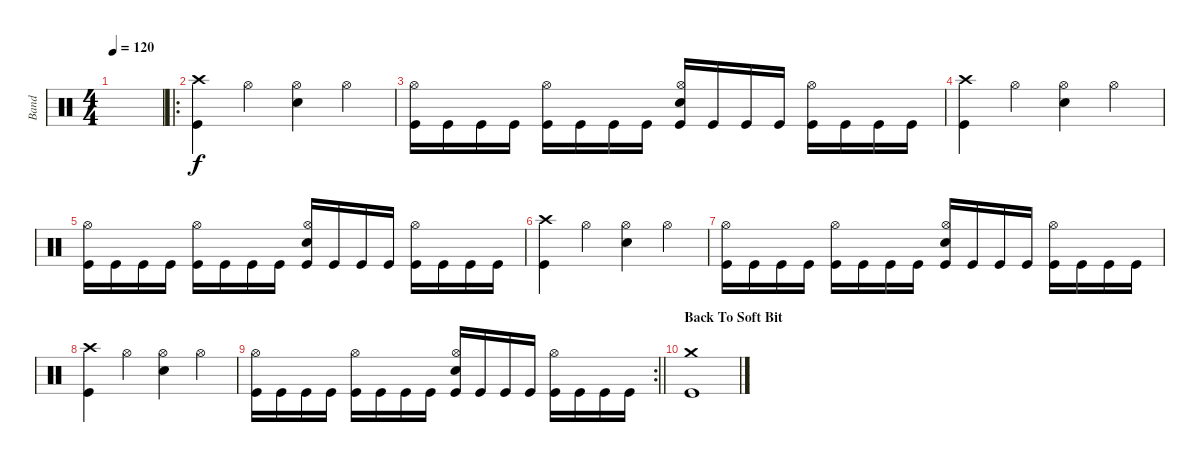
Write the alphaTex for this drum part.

\track ("Band" "Band") {instrument percussion}
\staff {score}
\articulation defaults
\ts (4 4)
\tempo 120
\clef neutral
\ks c
|
\ro
("Crash high (hit)" "Kick (hit)").4 "Hi-Hat (open)".4 ("Hi-Hat (open)" "Electric Snare (hit)").4 "Hi-Hat (open)".4 |
("Hi-Hat (open)" "Kick (hit)").16 "Kick (hit)".16 "Kick (hit)".16 "Kick (hit)".16 ("Hi-Hat (open)" "Kick (hit)").16 "Kick (hit)".16 "Kick (hit)".16 "Kick (hit)".16 ("Hi-Hat (open)" "Electric Snare (hit)" "Kick (hit)").16 "Kick (hit)".16 "Kick (hit)".16 "Kick (hit)".16 ("Hi-Hat (open)" "Kick (hit)").16 "Kick (hit)".16 "Kick (hit)".16 "Kick (hit)".16 |
("Crash high (hit)" "Kick (hit)").4 "Hi-Hat (open)".4 ("Hi-Hat (open)" "Electric Snare (hit)").4 "Hi-Hat (open)".4 |
("Hi-Hat (open)" "Kick (hit)").16 "Kick (hit)".16 "Kick (hit)".16 "Kick (hit)".16 ("Hi-Hat (open)" "Kick (hit)").16 "Kick (hit)".16 "Kick (hit)".16 "Kick (hit)".16 ("Hi-Hat (open)" "Electric Snare (hit)" "Kick (hit)").16 "Kick (hit)".16 "Kick (hit)".16 "Kick (hit)".16 ("Hi-Hat (open)" "Kick (hit)").16 "Kick (hit)".16 "Kick (hit)".16 "Kick (hit)".16 |
("Crash high (hit)" "Kick (hit)").4 "Hi-Hat (open)".4 ("Hi-Hat (open)" "Electric Snare (hit)").4 "Hi-Hat (open)".4 |
("Hi-Hat (open)" "Kick (hit)").16 "Kick (hit)".16 "Kick (hit)".16 "Kick (hit)".16 ("Hi-Hat (open)" "Kick (hit)").16 "Kick (hit)".16 "Kick (hit)".16 "Kick (hit)".16 ("Hi-Hat (open)" "Electric Snare (hit)" "Kick (hit)").16 "Kick (hit)".16 "Kick (hit)".16 "Kick (hit)".16 ("Hi-Hat (open)" "Kick (hit)").16 "Kick (hit)".16 "Kick (hit)".16 "Kick (hit)".16 |
("Crash high (hit)" "Kick (hit)").4 "Hi-Hat (open)".4 ("Hi-Hat (open)" "Electric Snare (hit)").4 "Hi-Hat (open)".4 |
\rc 2
\barLineRight lightlight
("Hi-Hat (open)" "Kick (hit)").16 "Kick (hit)".16 "Kick (hit)".16 "Kick (hit)".16 ("Hi-Hat (open)" "Kick (hit)").16 "Kick (hit)".16 "Kick (hit)".16 "Kick (hit)".16 ("Hi-Hat (open)" "Electric Snare (hit)" "Kick (hit)").16 "Kick (hit)".16 "Kick (hit)".16 "Kick (hit)".16 ("Hi-Hat (open)" "Kick (hit)").16 "Kick (hit)".16 "Kick (hit)".16 "Kick (hit)".16 |
\section ("" "Back To Soft Bit")
("Crash medium (hit)" "Kick (hit)").1
